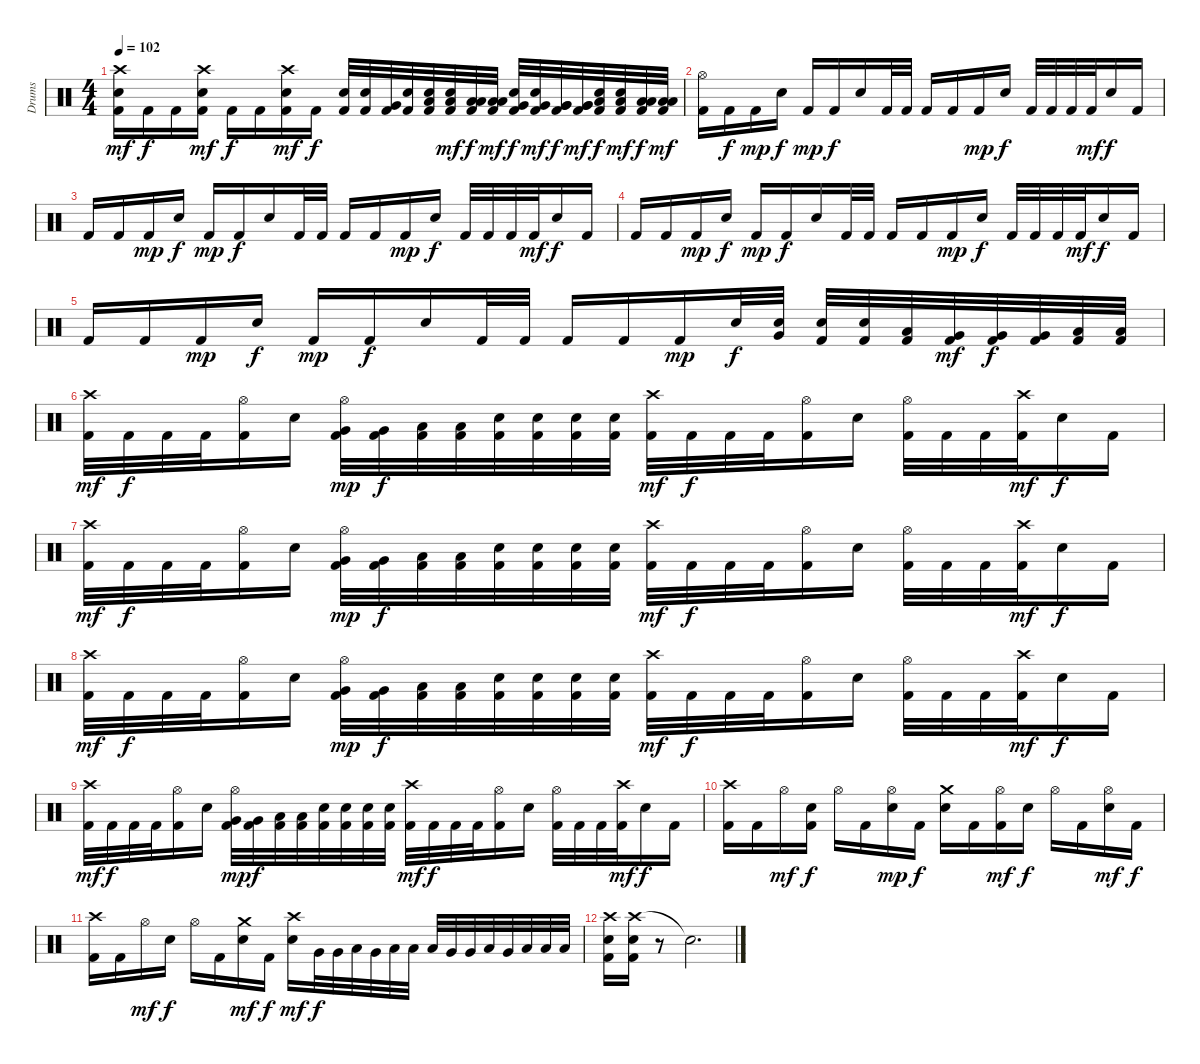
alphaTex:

\track ("Drums" "Drums") {instrument percussion}
\staff {score}
\articulation defaults
\ts (4 4)
\tempo 102
\clef neutral
\ks c
("Crash high (hit)" "Electric Snare (hit)" "Kick (hit) 2").16{dy mf} "Kick (hit) 2".16{dy f} "Kick (hit) 2".16 ("Crash high (hit)" "Electric Snare (hit)" "Kick (hit) 2").16{dy mf} "Kick (hit) 2".16{dy f} "Kick (hit) 2".16 ("Crash high (hit)" "Electric Snare (hit)" "Kick (hit) 2").16{dy mf} "Kick (hit) 2".16{dy f} ("Electric Snare (hit)" "Kick (hit) 2").32 ("Electric Snare (hit)" "Kick (hit) 2").32 ("Very Low Tom (hit)" "Kick (hit) 2").32 ("Electric Snare (hit)" "Kick (hit) 2").32 ("Low Tom (hit)" "Electric Snare (hit)" "Kick (hit) 2").32 ("Low Tom (hit)" "Electric Snare (hit)" "Kick (hit) 2").32{dy mf} ("Low Tom (hit)" "Low Tom (hit)" "Kick (hit) 2").32{dy f} ("Low Tom (hit)" "Low Tom (hit)" "Kick (hit) 2").32{dy mf} ("Very Low Tom (hit)" "Electric Snare (hit)" "Kick (hit) 2").32{dy f} ("Very Low Tom (hit)" "Electric Snare (hit)" "Kick (hit) 2").32{dy mf} ("Very Low Tom (hit)" "Very Low Tom (hit)" "Kick (hit) 2").32{dy f} ("Very Low Tom (hit)" "Very Low Tom (hit)" "Kick (hit) 2").32{dy mf} ("Low Floor Tom (hit)" "Electric Snare (hit)" "Kick (hit) 2").32{dy f} ("Low Floor Tom (hit)" "Electric Snare (hit)" "Kick (hit) 2").32{dy mf} ("Low Floor Tom (hit)" "Low Floor Tom (hit)" "Kick (hit) 2").32{dy f} ("Low Floor Tom (hit)" "Low Floor Tom (hit)" "Kick (hit) 2").32{dy mf} |
("Hi-Hat (open)" "Kick (hit) 2").16 "Kick (hit) 2".16{dy f} "Kick (hit) 2".16{dy mp} "Electric Snare (hit)".16{dy f} "Kick (hit) 2".16{dy mp} "Kick (hit) 2".16{dy f} "Electric Snare (hit)".16 "Kick (hit) 2".32 "Kick (hit) 2".32 "Kick (hit) 2".16 "Kick (hit) 2".16 "Kick (hit) 2".16{dy mp} "Electric Snare (hit)".16{dy f} "Kick (hit) 2".32 "Kick (hit) 2".32 "Kick (hit) 2".32 "Kick (hit) 2".32{dy mf} "Electric Snare (hit)".16{dy f} "Kick (hit) 2".16 |
"Kick (hit) 2".16 "Kick (hit) 2".16 "Kick (hit) 2".16{dy mp} "Electric Snare (hit)".16{dy f} "Kick (hit) 2".16{dy mp} "Kick (hit) 2".16{dy f} "Electric Snare (hit)".16 "Kick (hit) 2".32 "Kick (hit) 2".32 "Kick (hit) 2".16 "Kick (hit) 2".16 "Kick (hit) 2".16{dy mp} "Electric Snare (hit)".16{dy f} "Kick (hit) 2".32 "Kick (hit) 2".32 "Kick (hit) 2".32 "Kick (hit) 2".32{dy mf} "Electric Snare (hit)".16{dy f} "Kick (hit) 2".16 |
"Kick (hit) 2".16 "Kick (hit) 2".16 "Kick (hit) 2".16{dy mp} "Electric Snare (hit)".16{dy f} "Kick (hit) 2".16{dy mp} "Kick (hit) 2".16{dy f} "Electric Snare (hit)".16 "Kick (hit) 2".32 "Kick (hit) 2".32 "Kick (hit) 2".16 "Kick (hit) 2".16 "Kick (hit) 2".16{dy mp} "Electric Snare (hit)".16{dy f} "Kick (hit) 2".32 "Kick (hit) 2".32 "Kick (hit) 2".32 "Kick (hit) 2".32{dy mf} "Electric Snare (hit)".16{dy f} "Kick (hit) 2".16 |
"Kick (hit) 2".16 "Kick (hit) 2".16 "Kick (hit) 2".16{dy mp} "Electric Snare (hit)".16{dy f} "Kick (hit) 2".16{dy mp} "Kick (hit) 2".16{dy f} "Electric Snare (hit)".16 "Kick (hit) 2".32 "Kick (hit) 2".32 "Kick (hit) 2".16 "Kick (hit) 2".16 "Kick (hit) 2".16{dy mp} "Electric Snare (hit)".32{dy f} ("Very Low Tom (hit)" "Electric Snare (hit)").32 ("Electric Snare (hit)" "Kick (hit) 2").32 ("Electric Snare (hit)" "Kick (hit) 2").32 ("Low Tom (hit)" "Kick (hit) 2").32 ("Very Low Tom (hit)" "Kick (hit) 2").32{dy mf} ("Very Low Tom (hit)" "Kick (hit) 2").32{dy f} ("Very Low Tom (hit)" "Kick (hit) 2").32 ("Low Floor Tom (hit)" "Kick (hit) 2").32 ("Low Floor Tom (hit)" "Kick (hit) 2").32 |
("Crash high (hit)" "Kick (hit) 2").32{dy mf} "Kick (hit) 2".32{dy f} "Kick (hit) 2".32 "Kick (hit) 2".32 ("Hi-Hat (open)" "Kick (hit) 2").16 "Electric Snare (hit)".16 ("Hi-Hat (open)" "Very Low Tom (hit)" "Kick (hit) 2").32{dy mp} ("Very Low Tom (hit)" "Kick (hit) 2").32{dy f} ("Low Tom (hit)" "Kick (hit) 2").32 ("Low Tom (hit)" "Kick (hit) 2").32 ("Electric Snare (hit)" "Kick (hit) 2").32 ("Electric Snare (hit)" "Kick (hit) 2").32 ("Electric Snare (hit)" "Kick (hit) 2").32 ("Electric Snare (hit)" "Kick (hit) 2").32 ("Crash high (hit)" "Kick (hit) 2").32{dy mf} "Kick (hit) 2".32{dy f} "Kick (hit) 2".32 "Kick (hit) 2".32 ("Hi-Hat (open)" "Kick (hit) 2").16 "Electric Snare (hit)".16 ("Hi-Hat (open)" "Kick (hit) 2").32 "Kick (hit) 2".32 "Kick (hit) 2".32 ("Crash high (hit)" "Kick (hit) 2").32{dy mf} "Electric Snare (hit)".16{dy f} "Kick (hit) 2".16 |
("Crash high (hit)" "Kick (hit) 2").32{dy mf} "Kick (hit) 2".32{dy f} "Kick (hit) 2".32 "Kick (hit) 2".32 ("Hi-Hat (open)" "Kick (hit) 2").16 "Electric Snare (hit)".16 ("Hi-Hat (open)" "Very Low Tom (hit)" "Kick (hit) 2").32{dy mp} ("Very Low Tom (hit)" "Kick (hit) 2").32{dy f} ("Low Tom (hit)" "Kick (hit) 2").32 ("Low Tom (hit)" "Kick (hit) 2").32 ("Electric Snare (hit)" "Kick (hit) 2").32 ("Electric Snare (hit)" "Kick (hit) 2").32 ("Electric Snare (hit)" "Kick (hit) 2").32 ("Electric Snare (hit)" "Kick (hit) 2").32 ("Crash high (hit)" "Kick (hit) 2").32{dy mf} "Kick (hit) 2".32{dy f} "Kick (hit) 2".32 "Kick (hit) 2".32 ("Hi-Hat (open)" "Kick (hit) 2").16 "Electric Snare (hit)".16 ("Hi-Hat (open)" "Kick (hit) 2").32 "Kick (hit) 2".32 "Kick (hit) 2".32 ("Crash high (hit)" "Kick (hit) 2").32{dy mf} "Electric Snare (hit)".16{dy f} "Kick (hit) 2".16 |
("Crash high (hit)" "Kick (hit) 2").32{dy mf} "Kick (hit) 2".32{dy f} "Kick (hit) 2".32 "Kick (hit) 2".32 ("Hi-Hat (open)" "Kick (hit) 2").16 "Electric Snare (hit)".16 ("Hi-Hat (open)" "Very Low Tom (hit)" "Kick (hit) 2").32{dy mp} ("Very Low Tom (hit)" "Kick (hit) 2").32{dy f} ("Low Tom (hit)" "Kick (hit) 2").32 ("Low Tom (hit)" "Kick (hit) 2").32 ("Electric Snare (hit)" "Kick (hit) 2").32 ("Electric Snare (hit)" "Kick (hit) 2").32 ("Electric Snare (hit)" "Kick (hit) 2").32 ("Electric Snare (hit)" "Kick (hit) 2").32 ("Crash high (hit)" "Kick (hit) 2").32{dy mf} "Kick (hit) 2".32{dy f} "Kick (hit) 2".32 "Kick (hit) 2".32 ("Hi-Hat (open)" "Kick (hit) 2").16 "Electric Snare (hit)".16 ("Hi-Hat (open)" "Kick (hit) 2").32 "Kick (hit) 2".32 "Kick (hit) 2".32 ("Crash high (hit)" "Kick (hit) 2").32{dy mf} "Electric Snare (hit)".16{dy f} "Kick (hit) 2".16 |
("Crash high (hit)" "Kick (hit) 2").32{dy mf} "Kick (hit) 2".32{dy f} "Kick (hit) 2".32 "Kick (hit) 2".32 ("Hi-Hat (open)" "Kick (hit) 2").16 "Electric Snare (hit)".16 ("Hi-Hat (open)" "Very Low Tom (hit)" "Kick (hit) 2").32{dy mp} ("Very Low Tom (hit)" "Kick (hit) 2").32{dy f} ("Low Tom (hit)" "Kick (hit) 2").32 ("Low Tom (hit)" "Kick (hit) 2").32 ("Electric Snare (hit)" "Kick (hit) 2").32 ("Electric Snare (hit)" "Kick (hit) 2").32 ("Electric Snare (hit)" "Kick (hit) 2").32 ("Electric Snare (hit)" "Kick (hit) 2").32 ("Crash high (hit)" "Kick (hit) 2").32{dy mf} "Kick (hit) 2".32{dy f} "Kick (hit) 2".32 "Kick (hit) 2".32 ("Hi-Hat (open)" "Kick (hit) 2").16 "Electric Snare (hit)".16 ("Hi-Hat (open)" "Kick (hit) 2").32 "Kick (hit) 2".32 "Kick (hit) 2".32 ("Crash high (hit)" "Kick (hit) 2").32{dy mf} "Electric Snare (hit)".16{dy f} "Kick (hit) 2".16 |
("Crash high (hit)" "Kick (hit) 2").16 "Kick (hit) 2".16 "Hi-Hat (open)".16{dy mf} ("Electric Snare (hit)" "Kick (hit) 2").16{dy f} "Hi-Hat (open)".16 "Kick (hit) 2".16 ("Hi-Hat (open)" "Electric Snare (hit)").16{dy mp} "Kick (hit) 2".16{dy f} ("Crash medium (hit)" "Electric Snare (hit)").16 "Kick (hit) 2".16 ("Hi-Hat (open)" "Kick (hit) 2").16{dy mf} "Electric Snare (hit)".16{dy f} "Hi-Hat (open)".16 "Kick (hit) 2".16 ("Hi-Hat (open)" "Electric Snare (hit)").16{dy mf} "Kick (hit) 2".16{dy f} |
("Crash high (hit)" "Kick (hit) 2").16 "Kick (hit) 2".16 "Hi-Hat (open)".16{dy mf} "Electric Snare (hit)".16{dy f} "Hi-Hat (open)".16 "Kick (hit) 2".16 ("Crash medium (hit)" "Electric Snare (hit)").16{dy mf} "Kick (hit) 2".16{dy f} ("Crash high (hit)" "Electric Snare (hit)").16{dy mf} "Very Low Tom (hit)".32{dy f} "Very Low Tom (hit)".32 "Low Tom (hit)".32 "Very Low Tom (hit)".32 "Low Floor Tom (hit)".32 "Low Floor Tom (hit)".32 "Low Tom (hit)".32 "Very Low Tom (hit)".32 "Very Low Tom (hit)".32 "Low Floor Tom (hit)".32 "Very Low Tom (hit)".32 "Low Floor Tom (hit)".32 "Low Floor Tom (hit)".32 "Low Floor Tom (hit)".32 |
("Crash high (hit)" "Electric Snare (hit)" "Kick (hit) 2").16 ("Crash high (hit)" "Electric Snare (hit)" "Kick (hit) 2").16 r.8 "Snare (hit)"{t}.2{d}
